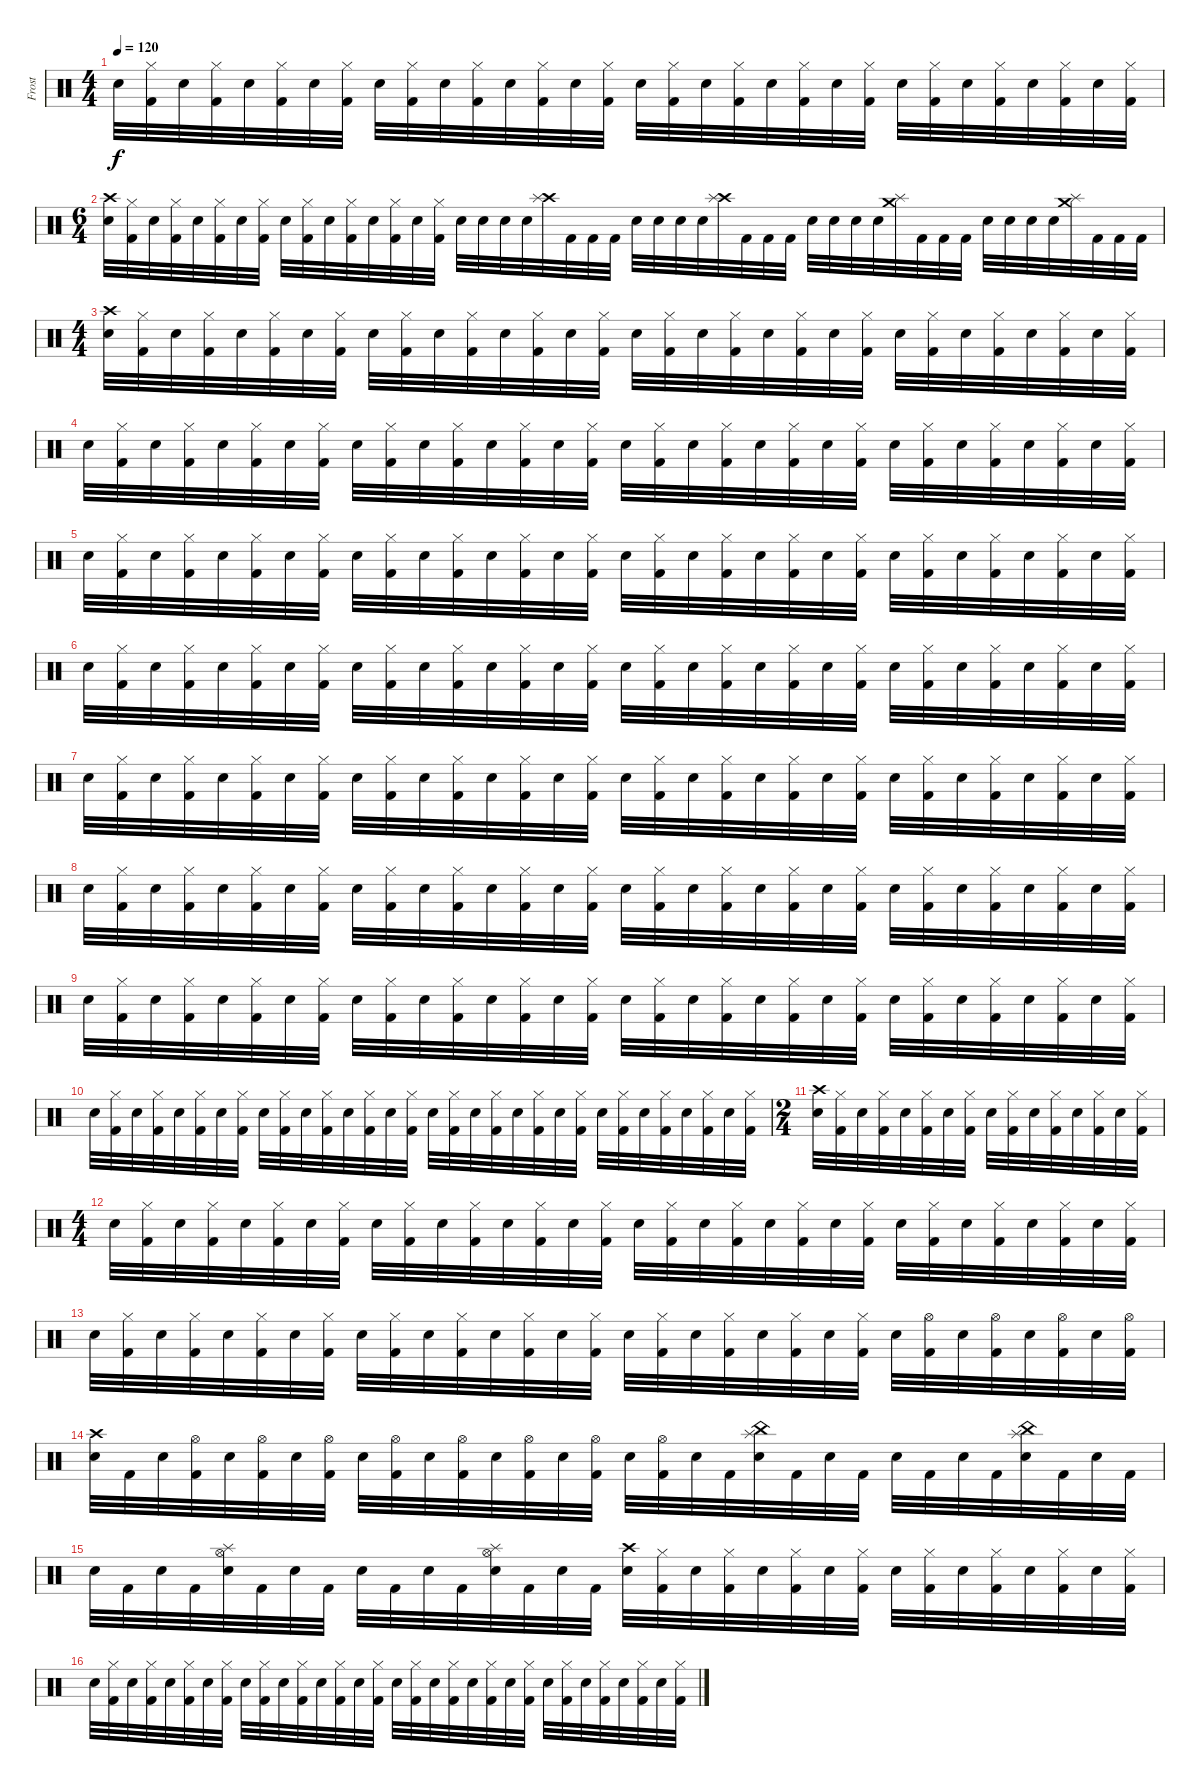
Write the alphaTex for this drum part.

\track ("Frost" "Frost") {instrument percussion}
\staff {score}
\articulation defaults
\ts (4 4)
\tempo 120
\clef neutral
\ks c "Snare (hit) 2".32{dy f}
("Hi-Hat (closed)" "Kick (hit) 2").32 "Snare (hit) 2".32 ("Hi-Hat (closed)" "Kick (hit) 2").32 "Snare (hit) 2".32 ("Hi-Hat (closed)" "Kick (hit) 2").32 "Snare (hit) 2".32 ("Hi-Hat (closed)" "Kick (hit) 2").32 "Snare (hit) 2".32 ("Hi-Hat (closed)" "Kick (hit) 2").32 "Snare (hit) 2".32 ("Hi-Hat (closed)" "Kick (hit) 2").32 "Snare (hit) 2".32 ("Hi-Hat (closed)" "Kick (hit) 2").32 "Snare (hit) 2".32 ("Hi-Hat (closed)" "Kick (hit) 2").32 "Snare (hit) 2".32 ("Hi-Hat (closed)" "Kick (hit) 2").32 "Snare (hit) 2".32 ("Hi-Hat (closed)" "Kick (hit) 2").32 "Snare (hit) 2".32 ("Hi-Hat (closed)" "Kick (hit) 2").32 "Snare (hit) 2".32 ("Hi-Hat (closed)" "Kick (hit) 2").32 "Snare (hit) 2".32 ("Hi-Hat (closed)" "Kick (hit) 2").32 "Snare (hit) 2".32 ("Hi-Hat (closed)" "Kick (hit) 2").32 "Snare (hit) 2".32 ("Hi-Hat (closed)" "Kick (hit) 2").32 "Snare (hit) 2".32 ("Hi-Hat (closed)" "Kick (hit) 2").32 |
\ts (6 4)
("Crash high (hit)" "Snare (hit) 2").32 ("Hi-Hat (closed)" "Kick (hit) 2").32 "Snare (hit) 2".32 ("Hi-Hat (closed)" "Kick (hit) 2").32 "Snare (hit) 2".32 ("Hi-Hat (closed)" "Kick (hit) 2").32 "Snare (hit) 2".32 ("Hi-Hat (closed)" "Kick (hit) 2").32 "Snare (hit) 2".32 ("Hi-Hat (closed)" "Kick (hit) 2").32 "Snare (hit) 2".32 ("Hi-Hat (closed)" "Kick (hit) 2").32 "Snare (hit) 2".32 ("Hi-Hat (closed)" "Kick (hit) 2").32 "Snare (hit) 2".32 ("Hi-Hat (closed)" "Kick (hit) 2").32 "Snare (hit) 2".32 "Snare (hit) 2".32 "Snare (hit) 2".32 "Snare (hit) 2".32 ("Crash high (hit)" "Splash (hit)").32 "Kick (hit) 2".32 "Kick (hit) 2".32 "Kick (hit) 2".32 "Snare (hit) 2".32 "Snare (hit) 2".32 "Snare (hit) 2".32 "Snare (hit) 2".32 ("Crash high (hit)" "Splash (hit)").32 "Kick (hit) 2".32 "Kick (hit) 2".32 "Kick (hit) 2".32 "Snare (hit) 2".32 "Snare (hit) 2".32 "Snare (hit) 2".32 "Snare (hit) 2".32 ("Splash (hit)" "Crash medium (hit)").32 "Kick (hit) 2".32 "Kick (hit) 2".32 "Kick (hit) 2".32 "Snare (hit) 2".32 "Snare (hit) 2".32 "Snare (hit) 2".32 "Snare (hit) 2".32 ("Splash (hit)" "Crash medium (hit)").32 "Kick (hit) 2".32 "Kick (hit) 2".32 "Kick (hit) 2".32 |
\ts (4 4)
("Crash high (hit)" "Snare (hit) 2").32 ("Hi-Hat (closed)" "Kick (hit) 2").32 "Snare (hit) 2".32 ("Hi-Hat (closed)" "Kick (hit) 2").32 "Snare (hit) 2".32 ("Hi-Hat (closed)" "Kick (hit) 2").32 "Snare (hit) 2".32 ("Hi-Hat (closed)" "Kick (hit) 2").32 "Snare (hit) 2".32 ("Hi-Hat (closed)" "Kick (hit) 2").32 "Snare (hit) 2".32 ("Hi-Hat (closed)" "Kick (hit) 2").32 "Snare (hit) 2".32 ("Hi-Hat (closed)" "Kick (hit) 2").32 "Snare (hit) 2".32 ("Hi-Hat (closed)" "Kick (hit) 2").32 "Snare (hit) 2".32 ("Hi-Hat (closed)" "Kick (hit) 2").32 "Snare (hit) 2".32 ("Hi-Hat (closed)" "Kick (hit) 2").32 "Snare (hit) 2".32 ("Hi-Hat (closed)" "Kick (hit) 2").32 "Snare (hit) 2".32 ("Hi-Hat (closed)" "Kick (hit) 2").32 "Snare (hit) 2".32 ("Hi-Hat (closed)" "Kick (hit) 2").32 "Snare (hit) 2".32 ("Hi-Hat (closed)" "Kick (hit) 2").32 "Snare (hit) 2".32 ("Hi-Hat (closed)" "Kick (hit) 2").32 "Snare (hit) 2".32 ("Hi-Hat (closed)" "Kick (hit) 2").32 |
"Snare (hit) 2".32 ("Hi-Hat (closed)" "Kick (hit) 2").32 "Snare (hit) 2".32 ("Hi-Hat (closed)" "Kick (hit) 2").32 "Snare (hit) 2".32 ("Hi-Hat (closed)" "Kick (hit) 2").32 "Snare (hit) 2".32 ("Hi-Hat (closed)" "Kick (hit) 2").32 "Snare (hit) 2".32 ("Hi-Hat (closed)" "Kick (hit) 2").32 "Snare (hit) 2".32 ("Hi-Hat (closed)" "Kick (hit) 2").32 "Snare (hit) 2".32 ("Hi-Hat (closed)" "Kick (hit) 2").32 "Snare (hit) 2".32 ("Hi-Hat (closed)" "Kick (hit) 2").32 "Snare (hit) 2".32 ("Hi-Hat (closed)" "Kick (hit) 2").32 "Snare (hit) 2".32 ("Hi-Hat (closed)" "Kick (hit) 2").32 "Snare (hit) 2".32 ("Hi-Hat (closed)" "Kick (hit) 2").32 "Snare (hit) 2".32 ("Hi-Hat (closed)" "Kick (hit) 2").32 "Snare (hit) 2".32 ("Hi-Hat (closed)" "Kick (hit) 2").32 "Snare (hit) 2".32 ("Hi-Hat (closed)" "Kick (hit) 2").32 "Snare (hit) 2".32 ("Hi-Hat (closed)" "Kick (hit) 2").32 "Snare (hit) 2".32 ("Hi-Hat (closed)" "Kick (hit) 2").32 |
"Snare (hit) 2".32 ("Hi-Hat (closed)" "Kick (hit) 2").32 "Snare (hit) 2".32 ("Hi-Hat (closed)" "Kick (hit) 2").32 "Snare (hit) 2".32 ("Hi-Hat (closed)" "Kick (hit) 2").32 "Snare (hit) 2".32 ("Hi-Hat (closed)" "Kick (hit) 2").32 "Snare (hit) 2".32 ("Hi-Hat (closed)" "Kick (hit) 2").32 "Snare (hit) 2".32 ("Hi-Hat (closed)" "Kick (hit) 2").32 "Snare (hit) 2".32 ("Hi-Hat (closed)" "Kick (hit) 2").32 "Snare (hit) 2".32 ("Hi-Hat (closed)" "Kick (hit) 2").32 "Snare (hit) 2".32 ("Hi-Hat (closed)" "Kick (hit) 2").32 "Snare (hit) 2".32 ("Hi-Hat (closed)" "Kick (hit) 2").32 "Snare (hit) 2".32 ("Hi-Hat (closed)" "Kick (hit) 2").32 "Snare (hit) 2".32 ("Hi-Hat (closed)" "Kick (hit) 2").32 "Snare (hit) 2".32 ("Hi-Hat (closed)" "Kick (hit) 2").32 "Snare (hit) 2".32 ("Hi-Hat (closed)" "Kick (hit) 2").32 "Snare (hit) 2".32 ("Hi-Hat (closed)" "Kick (hit) 2").32 "Snare (hit) 2".32 ("Hi-Hat (closed)" "Kick (hit) 2").32 |
"Snare (hit) 2".32 ("Hi-Hat (closed)" "Kick (hit) 2").32 "Snare (hit) 2".32 ("Hi-Hat (closed)" "Kick (hit) 2").32 "Snare (hit) 2".32 ("Hi-Hat (closed)" "Kick (hit) 2").32 "Snare (hit) 2".32 ("Hi-Hat (closed)" "Kick (hit) 2").32 "Snare (hit) 2".32 ("Hi-Hat (closed)" "Kick (hit) 2").32 "Snare (hit) 2".32 ("Hi-Hat (closed)" "Kick (hit) 2").32 "Snare (hit) 2".32 ("Hi-Hat (closed)" "Kick (hit) 2").32 "Snare (hit) 2".32 ("Hi-Hat (closed)" "Kick (hit) 2").32 "Snare (hit) 2".32 ("Hi-Hat (closed)" "Kick (hit) 2").32 "Snare (hit) 2".32 ("Hi-Hat (closed)" "Kick (hit) 2").32 "Snare (hit) 2".32 ("Hi-Hat (closed)" "Kick (hit) 2").32 "Snare (hit) 2".32 ("Hi-Hat (closed)" "Kick (hit) 2").32 "Snare (hit) 2".32 ("Hi-Hat (closed)" "Kick (hit) 2").32 "Snare (hit) 2".32 ("Hi-Hat (closed)" "Kick (hit) 2").32 "Snare (hit) 2".32 ("Hi-Hat (closed)" "Kick (hit) 2").32 "Snare (hit) 2".32 ("Hi-Hat (closed)" "Kick (hit) 2").32 |
"Snare (hit) 2".32 ("Hi-Hat (closed)" "Kick (hit) 2").32 "Snare (hit) 2".32 ("Hi-Hat (closed)" "Kick (hit) 2").32 "Snare (hit) 2".32 ("Hi-Hat (closed)" "Kick (hit) 2").32 "Snare (hit) 2".32 ("Hi-Hat (closed)" "Kick (hit) 2").32 "Snare (hit) 2".32 ("Hi-Hat (closed)" "Kick (hit) 2").32 "Snare (hit) 2".32 ("Hi-Hat (closed)" "Kick (hit) 2").32 "Snare (hit) 2".32 ("Hi-Hat (closed)" "Kick (hit) 2").32 "Snare (hit) 2".32 ("Hi-Hat (closed)" "Kick (hit) 2").32 "Snare (hit) 2".32 ("Hi-Hat (closed)" "Kick (hit) 2").32 "Snare (hit) 2".32 ("Hi-Hat (closed)" "Kick (hit) 2").32 "Snare (hit) 2".32 ("Hi-Hat (closed)" "Kick (hit) 2").32 "Snare (hit) 2".32 ("Hi-Hat (closed)" "Kick (hit) 2").32 "Snare (hit) 2".32 ("Hi-Hat (closed)" "Kick (hit) 2").32 "Snare (hit) 2".32 ("Hi-Hat (closed)" "Kick (hit) 2").32 "Snare (hit) 2".32 ("Hi-Hat (closed)" "Kick (hit) 2").32 "Snare (hit) 2".32 ("Hi-Hat (closed)" "Kick (hit) 2").32 |
"Snare (hit) 2".32 ("Hi-Hat (closed)" "Kick (hit) 2").32 "Snare (hit) 2".32 ("Hi-Hat (closed)" "Kick (hit) 2").32 "Snare (hit) 2".32 ("Hi-Hat (closed)" "Kick (hit) 2").32 "Snare (hit) 2".32 ("Hi-Hat (closed)" "Kick (hit) 2").32 "Snare (hit) 2".32 ("Hi-Hat (closed)" "Kick (hit) 2").32 "Snare (hit) 2".32 ("Hi-Hat (closed)" "Kick (hit) 2").32 "Snare (hit) 2".32 ("Hi-Hat (closed)" "Kick (hit) 2").32 "Snare (hit) 2".32 ("Hi-Hat (closed)" "Kick (hit) 2").32 "Snare (hit) 2".32 ("Hi-Hat (closed)" "Kick (hit) 2").32 "Snare (hit) 2".32 ("Hi-Hat (closed)" "Kick (hit) 2").32 "Snare (hit) 2".32 ("Hi-Hat (closed)" "Kick (hit) 2").32 "Snare (hit) 2".32 ("Hi-Hat (closed)" "Kick (hit) 2").32 "Snare (hit) 2".32 ("Hi-Hat (closed)" "Kick (hit) 2").32 "Snare (hit) 2".32 ("Hi-Hat (closed)" "Kick (hit) 2").32 "Snare (hit) 2".32 ("Hi-Hat (closed)" "Kick (hit) 2").32 "Snare (hit) 2".32 ("Hi-Hat (closed)" "Kick (hit) 2").32 |
"Snare (hit) 2".32 ("Hi-Hat (closed)" "Kick (hit) 2").32 "Snare (hit) 2".32 ("Hi-Hat (closed)" "Kick (hit) 2").32 "Snare (hit) 2".32 ("Hi-Hat (closed)" "Kick (hit) 2").32 "Snare (hit) 2".32 ("Hi-Hat (closed)" "Kick (hit) 2").32 "Snare (hit) 2".32 ("Hi-Hat (closed)" "Kick (hit) 2").32 "Snare (hit) 2".32 ("Hi-Hat (closed)" "Kick (hit) 2").32 "Snare (hit) 2".32 ("Hi-Hat (closed)" "Kick (hit) 2").32 "Snare (hit) 2".32 ("Hi-Hat (closed)" "Kick (hit) 2").32 "Snare (hit) 2".32 ("Hi-Hat (closed)" "Kick (hit) 2").32 "Snare (hit) 2".32 ("Hi-Hat (closed)" "Kick (hit) 2").32 "Snare (hit) 2".32 ("Hi-Hat (closed)" "Kick (hit) 2").32 "Snare (hit) 2".32 ("Hi-Hat (closed)" "Kick (hit) 2").32 "Snare (hit) 2".32 ("Hi-Hat (closed)" "Kick (hit) 2").32 "Snare (hit) 2".32 ("Hi-Hat (closed)" "Kick (hit) 2").32 "Snare (hit) 2".32 ("Hi-Hat (closed)" "Kick (hit) 2").32 "Snare (hit) 2".32 ("Hi-Hat (closed)" "Kick (hit) 2").32 |
"Snare (hit) 2".32 ("Hi-Hat (closed)" "Kick (hit) 2").32 "Snare (hit) 2".32 ("Hi-Hat (closed)" "Kick (hit) 2").32 "Snare (hit) 2".32 ("Hi-Hat (closed)" "Kick (hit) 2").32 "Snare (hit) 2".32 ("Hi-Hat (closed)" "Kick (hit) 2").32 "Snare (hit) 2".32 ("Hi-Hat (closed)" "Kick (hit) 2").32 "Snare (hit) 2".32 ("Hi-Hat (closed)" "Kick (hit) 2").32 "Snare (hit) 2".32 ("Hi-Hat (closed)" "Kick (hit) 2").32 "Snare (hit) 2".32 ("Hi-Hat (closed)" "Kick (hit) 2").32 "Snare (hit) 2".32 ("Hi-Hat (closed)" "Kick (hit) 2").32 "Snare (hit) 2".32 ("Hi-Hat (closed)" "Kick (hit) 2").32 "Snare (hit) 2".32 ("Hi-Hat (closed)" "Kick (hit) 2").32 "Snare (hit) 2".32 ("Hi-Hat (closed)" "Kick (hit) 2").32 "Snare (hit) 2".32 ("Hi-Hat (closed)" "Kick (hit) 2").32 "Snare (hit) 2".32 ("Hi-Hat (closed)" "Kick (hit) 2").32 "Snare (hit) 2".32 ("Hi-Hat (closed)" "Kick (hit) 2").32 "Snare (hit) 2".32 ("Hi-Hat (closed)" "Kick (hit) 2").32 |
\ts (2 4)
("Crash high (hit)" "Snare (hit) 2").32 ("Hi-Hat (closed)" "Kick (hit) 2").32 "Snare (hit) 2".32 ("Hi-Hat (closed)" "Kick (hit) 2").32 "Snare (hit) 2".32 ("Hi-Hat (closed)" "Kick (hit) 2").32 "Snare (hit) 2".32 ("Hi-Hat (closed)" "Kick (hit) 2").32 "Snare (hit) 2".32 ("Hi-Hat (closed)" "Kick (hit) 2").32 "Snare (hit) 2".32 ("Hi-Hat (closed)" "Kick (hit) 2").32 "Snare (hit) 2".32 ("Hi-Hat (closed)" "Kick (hit) 2").32 "Snare (hit) 2".32 ("Hi-Hat (closed)" "Kick (hit) 2").32 |
\ts (4 4)
"Snare (hit) 2".32 ("Hi-Hat (closed)" "Kick (hit) 2").32 "Snare (hit) 2".32 ("Hi-Hat (closed)" "Kick (hit) 2").32 "Snare (hit) 2".32 ("Hi-Hat (closed)" "Kick (hit) 2").32 "Snare (hit) 2".32 ("Hi-Hat (closed)" "Kick (hit) 2").32 "Snare (hit) 2".32 ("Hi-Hat (closed)" "Kick (hit) 2").32 "Snare (hit) 2".32 ("Hi-Hat (closed)" "Kick (hit) 2").32 "Snare (hit) 2".32 ("Hi-Hat (closed)" "Kick (hit) 2").32 "Snare (hit) 2".32 ("Hi-Hat (closed)" "Kick (hit) 2").32 "Snare (hit) 2".32 ("Hi-Hat (closed)" "Kick (hit) 2").32 "Snare (hit) 2".32 ("Hi-Hat (closed)" "Kick (hit) 2").32 "Snare (hit) 2".32 ("Hi-Hat (closed)" "Kick (hit) 2").32 "Snare (hit) 2".32 ("Hi-Hat (closed)" "Kick (hit) 2").32 "Snare (hit) 2".32 ("Hi-Hat (closed)" "Kick (hit) 2").32 "Snare (hit) 2".32 ("Hi-Hat (closed)" "Kick (hit) 2").32 "Snare (hit) 2".32 ("Hi-Hat (closed)" "Kick (hit) 2").32 "Snare (hit) 2".32 ("Hi-Hat (closed)" "Kick (hit) 2").32 |
"Snare (hit) 2".32 ("Hi-Hat (closed)" "Kick (hit) 2").32 "Snare (hit) 2".32 ("Hi-Hat (closed)" "Kick (hit) 2").32 "Snare (hit) 2".32 ("Hi-Hat (closed)" "Kick (hit) 2").32 "Snare (hit) 2".32 ("Hi-Hat (closed)" "Kick (hit) 2").32 "Snare (hit) 2".32 ("Hi-Hat (closed)" "Kick (hit) 2").32 "Snare (hit) 2".32 ("Hi-Hat (closed)" "Kick (hit) 2").32 "Snare (hit) 2".32 ("Hi-Hat (closed)" "Kick (hit) 2").32 "Snare (hit) 2".32 ("Hi-Hat (closed)" "Kick (hit) 2").32 "Snare (hit) 2".32 ("Hi-Hat (closed)" "Kick (hit) 2").32 "Snare (hit) 2".32 ("Hi-Hat (closed)" "Kick (hit) 2").32 "Snare (hit) 2".32 ("Hi-Hat (closed)" "Kick (hit) 2").32 "Snare (hit) 2".32 ("Hi-Hat (closed)" "Kick (hit) 2").32 "Snare (hit) 2".32 ("Hi-Hat (open)" "Kick (hit) 2").32 "Snare (hit) 2".32 ("Hi-Hat (open)" "Kick (hit) 2").32 "Snare (hit) 2".32 ("Hi-Hat (open)" "Kick (hit) 2").32 "Snare (hit) 2".32 ("Hi-Hat (open)" "Kick (hit) 2").32 |
("Crash high (hit)" "Snare (hit) 2").32 "Kick (hit) 2".32 "Snare (hit) 2".32 ("Hi-Hat (open)" "Kick (hit) 2").32 "Snare (hit) 2".32 ("Hi-Hat (open)" "Kick (hit) 2").32 "Snare (hit) 2".32 ("Hi-Hat (open)" "Kick (hit) 2").32 "Snare (hit) 2".32 ("Hi-Hat (open)" "Kick (hit) 2").32 "Snare (hit) 2".32 ("Hi-Hat (open)" "Kick (hit) 2").32 "Snare (hit) 2".32 ("Hi-Hat (open)" "Kick (hit) 2").32 "Snare (hit) 2".32 ("Hi-Hat (open)" "Kick (hit) 2").32 "Snare (hit) 2".32 ("Hi-Hat (open)" "Kick (hit) 2").32 "Snare (hit) 2".32 "Kick (hit) 2".32 ("Splash (hit)" "China (hit)" "Snare (hit) 2").32 "Kick (hit) 2".32 "Snare (hit) 2".32 "Kick (hit) 2".32 "Snare (hit) 2".32 "Kick (hit) 2".32 "Snare (hit) 2".32 "Kick (hit) 2".32 ("Splash (hit)" "China (hit)" "Snare (hit) 2").32 "Kick (hit) 2".32 "Snare (hit) 2".32 "Kick (hit) 2".32 |
"Snare (hit) 2".32 "Kick (hit) 2".32 "Snare (hit) 2".32 "Kick (hit) 2".32 ("Splash (hit)" "Hi-Hat (open)" "Snare (hit) 2").32 "Kick (hit) 2".32 "Snare (hit) 2".32 "Kick (hit) 2".32 "Snare (hit) 2".32 "Kick (hit) 2".32 "Snare (hit) 2".32 "Kick (hit) 2".32 ("Splash (hit)" "Hi-Hat (open)" "Snare (hit) 2").32 "Kick (hit) 2".32 "Snare (hit) 2".32 "Kick (hit) 2".32 ("Crash high (hit)" "Snare (hit) 2").32 ("Hi-Hat (closed)" "Kick (hit) 2").32 "Snare (hit) 2".32 ("Hi-Hat (closed)" "Kick (hit) 2").32 "Snare (hit) 2".32 ("Hi-Hat (closed)" "Kick (hit) 2").32 "Snare (hit) 2".32 ("Hi-Hat (closed)" "Kick (hit) 2").32 "Snare (hit) 2".32 ("Hi-Hat (closed)" "Kick (hit) 2").32 "Snare (hit) 2".32 ("Hi-Hat (closed)" "Kick (hit) 2").32 "Snare (hit) 2".32 ("Hi-Hat (closed)" "Kick (hit) 2").32 "Snare (hit) 2".32 ("Hi-Hat (closed)" "Kick (hit) 2").32 |
"Snare (hit) 2".32 ("Hi-Hat (closed)" "Kick (hit) 2").32 "Snare (hit) 2".32 ("Hi-Hat (closed)" "Kick (hit) 2").32 "Snare (hit) 2".32 ("Hi-Hat (closed)" "Kick (hit) 2").32 "Snare (hit) 2".32 ("Hi-Hat (closed)" "Kick (hit) 2").32 "Snare (hit) 2".32 ("Hi-Hat (closed)" "Kick (hit) 2").32 "Snare (hit) 2".32 ("Hi-Hat (closed)" "Kick (hit) 2").32 "Snare (hit) 2".32 ("Hi-Hat (closed)" "Kick (hit) 2").32 "Snare (hit) 2".32 ("Hi-Hat (closed)" "Kick (hit) 2").32 "Snare (hit) 2".32 ("Hi-Hat (closed)" "Kick (hit) 2").32 "Snare (hit) 2".32 ("Hi-Hat (closed)" "Kick (hit) 2").32 "Snare (hit) 2".32 ("Hi-Hat (closed)" "Kick (hit) 2").32 "Snare (hit) 2".32 ("Hi-Hat (closed)" "Kick (hit) 2").32 "Snare (hit) 2".32 ("Hi-Hat (closed)" "Kick (hit) 2").32 "Snare (hit) 2".32 ("Hi-Hat (closed)" "Kick (hit) 2").32 "Snare (hit) 2".32 ("Hi-Hat (closed)" "Kick (hit) 2").32 "Snare (hit) 2".32 ("Hi-Hat (closed)" "Kick (hit) 2").32
